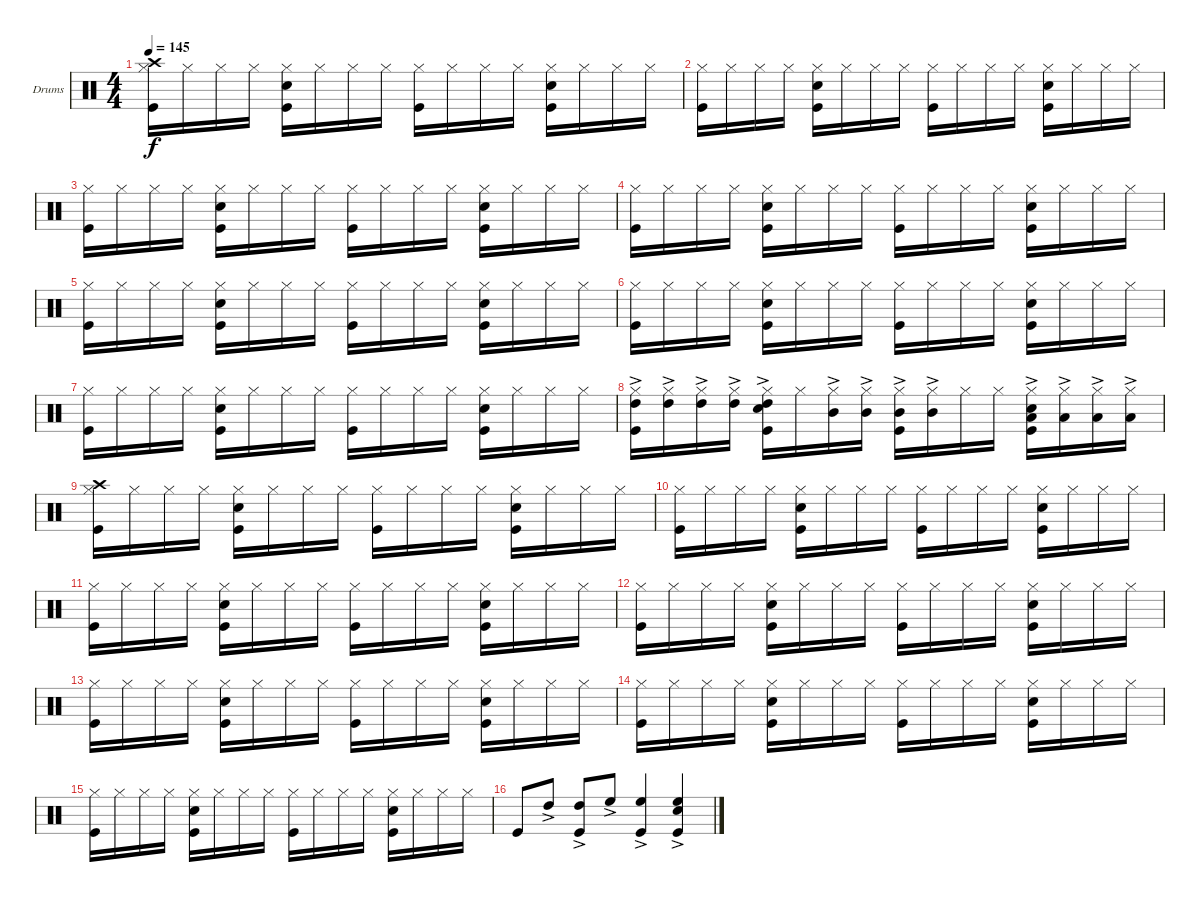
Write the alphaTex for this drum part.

\defaultSystemsLayout 4
\bracketExtendMode groupsimilarinstruments
\firstSystemTrackNameOrientation horizontal
\otherSystemsTrackNameOrientation horizontal
\track ("Drumkit" "Drums") {instrument percussion}
\staff {score}
\articulation defaults
\ts (4 4)
\tempo 145
\clef neutral
\ks c
("Hi-Hat (closed)" "Kick (hit)" "Crash high (hit)").16{dy f} "Hi-Hat (closed)".16 "Hi-Hat (closed)".16 "Hi-Hat (closed)".16 ("Hi-Hat (closed)" "Kick (hit)" "Snare (hit) 2").16 "Hi-Hat (closed)".16 "Hi-Hat (closed)".16 "Hi-Hat (closed)".16 ("Hi-Hat (closed)" "Kick (hit)").16 "Hi-Hat (closed)".16 "Hi-Hat (closed)".16 "Hi-Hat (closed)".16 ("Hi-Hat (closed)" "Kick (hit)" "Snare (hit) 2").16 "Hi-Hat (closed)".16 "Hi-Hat (closed)".16 "Hi-Hat (closed)".16 |
("Hi-Hat (closed)" "Kick (hit)").16 "Hi-Hat (closed)".16 "Hi-Hat (closed)".16 "Hi-Hat (closed)".16 ("Hi-Hat (closed)" "Kick (hit)" "Snare (hit) 2").16 "Hi-Hat (closed)".16 "Hi-Hat (closed)".16 "Hi-Hat (closed)".16 ("Hi-Hat (closed)" "Kick (hit)").16 "Hi-Hat (closed)".16 "Hi-Hat (closed)".16 "Hi-Hat (closed)".16 ("Hi-Hat (closed)" "Kick (hit)" "Snare (hit) 2").16 "Hi-Hat (closed)".16 "Hi-Hat (closed)".16 "Hi-Hat (closed)".16 |
("Hi-Hat (closed)" "Kick (hit)").16 "Hi-Hat (closed)".16 "Hi-Hat (closed)".16 "Hi-Hat (closed)".16 ("Hi-Hat (closed)" "Kick (hit)" "Snare (hit) 2").16 "Hi-Hat (closed)".16 "Hi-Hat (closed)".16 "Hi-Hat (closed)".16 ("Hi-Hat (closed)" "Kick (hit)").16 "Hi-Hat (closed)".16 "Hi-Hat (closed)".16 "Hi-Hat (closed)".16 ("Hi-Hat (closed)" "Kick (hit)" "Snare (hit) 2").16 "Hi-Hat (closed)".16 "Hi-Hat (closed)".16 "Hi-Hat (closed)".16 |
("Hi-Hat (closed)" "Kick (hit)").16 "Hi-Hat (closed)".16 "Hi-Hat (closed)".16 "Hi-Hat (closed)".16 ("Hi-Hat (closed)" "Kick (hit)" "Snare (hit) 2").16 "Hi-Hat (closed)".16 "Hi-Hat (closed)".16 "Hi-Hat (closed)".16 ("Hi-Hat (closed)" "Kick (hit)").16 "Hi-Hat (closed)".16 "Hi-Hat (closed)".16 "Hi-Hat (closed)".16 ("Hi-Hat (closed)" "Kick (hit)" "Snare (hit) 2").16 "Hi-Hat (closed)".16 "Hi-Hat (closed)".16 "Hi-Hat (closed)".16 |
("Hi-Hat (closed)" "Kick (hit)").16 "Hi-Hat (closed)".16 "Hi-Hat (closed)".16 "Hi-Hat (closed)".16 ("Hi-Hat (closed)" "Kick (hit)" "Snare (hit) 2").16 "Hi-Hat (closed)".16 "Hi-Hat (closed)".16 "Hi-Hat (closed)".16 ("Hi-Hat (closed)" "Kick (hit)").16 "Hi-Hat (closed)".16 "Hi-Hat (closed)".16 "Hi-Hat (closed)".16 ("Hi-Hat (closed)" "Kick (hit)" "Snare (hit) 2").16 "Hi-Hat (closed)".16 "Hi-Hat (closed)".16 "Hi-Hat (closed)".16 |
("Hi-Hat (closed)" "Kick (hit)").16 "Hi-Hat (closed)".16 "Hi-Hat (closed)".16 "Hi-Hat (closed)".16 ("Hi-Hat (closed)" "Kick (hit)" "Snare (hit) 2").16 "Hi-Hat (closed)".16 "Hi-Hat (closed)".16 "Hi-Hat (closed)".16 ("Hi-Hat (closed)" "Kick (hit)").16 "Hi-Hat (closed)".16 "Hi-Hat (closed)".16 "Hi-Hat (closed)".16 ("Hi-Hat (closed)" "Kick (hit)" "Snare (hit) 2").16 "Hi-Hat (closed)".16 "Hi-Hat (closed)".16 "Hi-Hat (closed)".16 |
("Hi-Hat (closed)" "Kick (hit)").16 "Hi-Hat (closed)".16 "Hi-Hat (closed)".16 "Hi-Hat (closed)".16 ("Hi-Hat (closed)" "Kick (hit)" "Snare (hit) 2").16 "Hi-Hat (closed)".16 "Hi-Hat (closed)".16 "Hi-Hat (closed)".16 ("Hi-Hat (closed)" "Kick (hit)").16 "Hi-Hat (closed)".16 "Hi-Hat (closed)".16 "Hi-Hat (closed)".16 ("Hi-Hat (closed)" "Kick (hit)" "Snare (hit) 2").16 "Hi-Hat (closed)".16 "Hi-Hat (closed)".16 "Hi-Hat (closed)".16 |
("Hi-Hat (closed)" "Kick (hit)" "High Tom (hit)"{ac}).16 ("Hi-Hat (closed)" "High Tom (hit)"{ac}).16 ("Hi-Hat (closed)" "High Tom (hit)"{ac}).16 ("Hi-Hat (closed)" "High Tom (hit)"{ac}).16 ("Hi-Hat (closed)" "Kick (hit)" "Snare (hit) 2" "High Tom (hit)"{ac}).16 "Hi-Hat (closed)".16 ("Hi-Hat (closed)" "Mid Tom (hit)"{ac}).16 ("Hi-Hat (closed)" "Mid Tom (hit)"{ac}).16 ("Hi-Hat (closed)" "Kick (hit)" "Mid Tom (hit)"{ac}).16 ("Hi-Hat (closed)" "Mid Tom (hit)"{ac}).16 "Hi-Hat (closed)".16 "Hi-Hat (closed)".16 ("Hi-Hat (closed)" "Kick (hit)" "Snare (hit) 2" "Low Tom (hit)"{ac}).16 ("Hi-Hat (closed)" "Low Tom (hit)"{ac}).16 ("Hi-Hat (closed)" "Low Tom (hit)"{ac}).16 ("Hi-Hat (closed)" "Low Tom (hit)"{ac}).16 |
("Hi-Hat (closed)" "Kick (hit)" "Crash high (hit)").16 "Hi-Hat (closed)".16 "Hi-Hat (closed)".16 "Hi-Hat (closed)".16 ("Hi-Hat (closed)" "Kick (hit)" "Snare (hit) 2").16 "Hi-Hat (closed)".16 "Hi-Hat (closed)".16 "Hi-Hat (closed)".16 ("Hi-Hat (closed)" "Kick (hit)").16 "Hi-Hat (closed)".16 "Hi-Hat (closed)".16 "Hi-Hat (closed)".16 ("Hi-Hat (closed)" "Kick (hit)" "Snare (hit) 2").16 "Hi-Hat (closed)".16 "Hi-Hat (closed)".16 "Hi-Hat (closed)".16 |
("Hi-Hat (closed)" "Kick (hit)").16 "Hi-Hat (closed)".16 "Hi-Hat (closed)".16 "Hi-Hat (closed)".16 ("Hi-Hat (closed)" "Kick (hit)" "Snare (hit) 2").16 "Hi-Hat (closed)".16 "Hi-Hat (closed)".16 "Hi-Hat (closed)".16 ("Hi-Hat (closed)" "Kick (hit)").16 "Hi-Hat (closed)".16 "Hi-Hat (closed)".16 "Hi-Hat (closed)".16 ("Hi-Hat (closed)" "Kick (hit)" "Snare (hit) 2").16 "Hi-Hat (closed)".16 "Hi-Hat (closed)".16 "Hi-Hat (closed)".16 |
("Hi-Hat (closed)" "Kick (hit)").16 "Hi-Hat (closed)".16 "Hi-Hat (closed)".16 "Hi-Hat (closed)".16 ("Hi-Hat (closed)" "Kick (hit)" "Snare (hit) 2").16 "Hi-Hat (closed)".16 "Hi-Hat (closed)".16 "Hi-Hat (closed)".16 ("Hi-Hat (closed)" "Kick (hit)").16 "Hi-Hat (closed)".16 "Hi-Hat (closed)".16 "Hi-Hat (closed)".16 ("Hi-Hat (closed)" "Kick (hit)" "Snare (hit) 2").16 "Hi-Hat (closed)".16 "Hi-Hat (closed)".16 "Hi-Hat (closed)".16 |
("Hi-Hat (closed)" "Kick (hit)").16 "Hi-Hat (closed)".16 "Hi-Hat (closed)".16 "Hi-Hat (closed)".16 ("Hi-Hat (closed)" "Kick (hit)" "Snare (hit) 2").16 "Hi-Hat (closed)".16 "Hi-Hat (closed)".16 "Hi-Hat (closed)".16 ("Hi-Hat (closed)" "Kick (hit)").16 "Hi-Hat (closed)".16 "Hi-Hat (closed)".16 "Hi-Hat (closed)".16 ("Hi-Hat (closed)" "Kick (hit)" "Snare (hit) 2").16 "Hi-Hat (closed)".16 "Hi-Hat (closed)".16 "Hi-Hat (closed)".16 |
("Hi-Hat (closed)" "Kick (hit)").16 "Hi-Hat (closed)".16 "Hi-Hat (closed)".16 "Hi-Hat (closed)".16 ("Hi-Hat (closed)" "Kick (hit)" "Snare (hit) 2").16 "Hi-Hat (closed)".16 "Hi-Hat (closed)".16 "Hi-Hat (closed)".16 ("Hi-Hat (closed)" "Kick (hit)").16 "Hi-Hat (closed)".16 "Hi-Hat (closed)".16 "Hi-Hat (closed)".16 ("Hi-Hat (closed)" "Kick (hit)" "Snare (hit) 2").16 "Hi-Hat (closed)".16 "Hi-Hat (closed)".16 "Hi-Hat (closed)".16 |
("Hi-Hat (closed)" "Kick (hit)").16 "Hi-Hat (closed)".16 "Hi-Hat (closed)".16 "Hi-Hat (closed)".16 ("Hi-Hat (closed)" "Kick (hit)" "Snare (hit) 2").16 "Hi-Hat (closed)".16 "Hi-Hat (closed)".16 "Hi-Hat (closed)".16 ("Hi-Hat (closed)" "Kick (hit)").16 "Hi-Hat (closed)".16 "Hi-Hat (closed)".16 "Hi-Hat (closed)".16 ("Hi-Hat (closed)" "Kick (hit)" "Snare (hit) 2").16 "Hi-Hat (closed)".16 "Hi-Hat (closed)".16 "Hi-Hat (closed)".16 |
("Hi-Hat (closed)" "Kick (hit)").16 "Hi-Hat (closed)".16 "Hi-Hat (closed)".16 "Hi-Hat (closed)".16 ("Hi-Hat (closed)" "Kick (hit)" "Snare (hit) 2").16 "Hi-Hat (closed)".16 "Hi-Hat (closed)".16 "Hi-Hat (closed)".16 ("Hi-Hat (closed)" "Kick (hit)").16 "Hi-Hat (closed)".16 "Hi-Hat (closed)".16 "Hi-Hat (closed)".16 ("Hi-Hat (closed)" "Kick (hit)" "Snare (hit) 2").16 "Hi-Hat (closed)".16 "Hi-Hat (closed)".16 "Hi-Hat (closed)".16 |
"Kick (hit)".8 "High Tom (hit)"{ac}.8 ("High Tom (hit)"{ac} "Kick (hit)").8 "High Floor Tom (hit)"{ac}.8 ("High Floor Tom (hit)"{ac} "Kick (hit)").4 ("High Floor Tom (hit)"{ac} "Kick (hit)" "Snare (hit) 2").4
